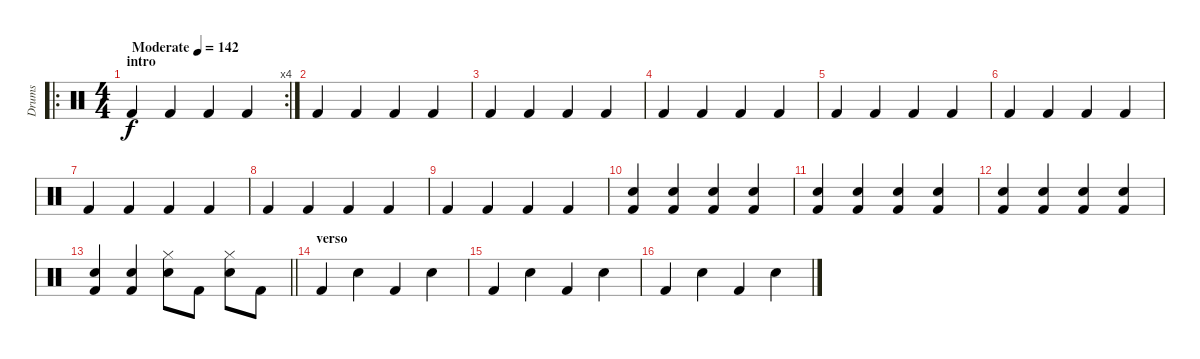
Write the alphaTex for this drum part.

\track ("Drums" "Drums") {instrument percussion}
\staff {score}
\articulation defaults
\ro
\rc 4
\ts (4 4)
\section ("" "intro")
\tempo (142 "Moderate")
\clef neutral
\ks c "Kick (hit) 2".4{dy f} "Kick (hit) 2".4 "Kick (hit) 2".4 "Kick (hit) 2".4
|
"Kick (hit) 2".4 "Kick (hit) 2".4 "Kick (hit) 2".4 "Kick (hit) 2".4 |
"Kick (hit) 2".4 "Kick (hit) 2".4 "Kick (hit) 2".4 "Kick (hit) 2".4 |
"Kick (hit) 2".4 "Kick (hit) 2".4 "Kick (hit) 2".4 "Kick (hit) 2".4 |
"Kick (hit) 2".4 "Kick (hit) 2".4 "Kick (hit) 2".4 "Kick (hit) 2".4 |
"Kick (hit) 2".4 "Kick (hit) 2".4 "Kick (hit) 2".4 "Kick (hit) 2".4 |
"Kick (hit) 2".4 "Kick (hit) 2".4 "Kick (hit) 2".4 "Kick (hit) 2".4 |
"Kick (hit) 2".4 "Kick (hit) 2".4 "Kick (hit) 2".4 "Kick (hit) 2".4 |
"Kick (hit) 2".4 "Kick (hit) 2".4 "Kick (hit) 2".4 "Kick (hit) 2".4 |
("Kick (hit) 2" "Electric Snare (hit)").4 ("Kick (hit) 2" "Electric Snare (hit)").4 ("Kick (hit) 2" "Electric Snare (hit)").4 ("Kick (hit) 2" "Electric Snare (hit)").4 |
("Kick (hit) 2" "Electric Snare (hit)").4 ("Kick (hit) 2" "Electric Snare (hit)").4 ("Kick (hit) 2" "Electric Snare (hit)").4 ("Kick (hit) 2" "Electric Snare (hit)").4 |
("Kick (hit) 2" "Electric Snare (hit)").4 ("Kick (hit) 2" "Electric Snare (hit)").4 ("Kick (hit) 2" "Electric Snare (hit)").4 ("Kick (hit) 2" "Electric Snare (hit)").4 |
\barLineRight lightlight
("Kick (hit) 2" "Electric Snare (hit)").4 ("Kick (hit) 2" "Electric Snare (hit)").4 ("Electric Snare (hit)" "Hi-Hat (closed)").8 "Kick (hit) 2".8 ("Electric Snare (hit)" "Hi-Hat (closed)").8 "Kick (hit) 2".8 |
\section ("" "verso")
"Kick (hit) 2".4 "Electric Snare (hit)".4 "Kick (hit) 2".4 "Electric Snare (hit)".4 |
"Kick (hit) 2".4 "Electric Snare (hit)".4 "Kick (hit) 2".4 "Electric Snare (hit)".4 |
"Kick (hit) 2".4 "Electric Snare (hit)".4 "Kick (hit) 2".4 "Electric Snare (hit)".4
